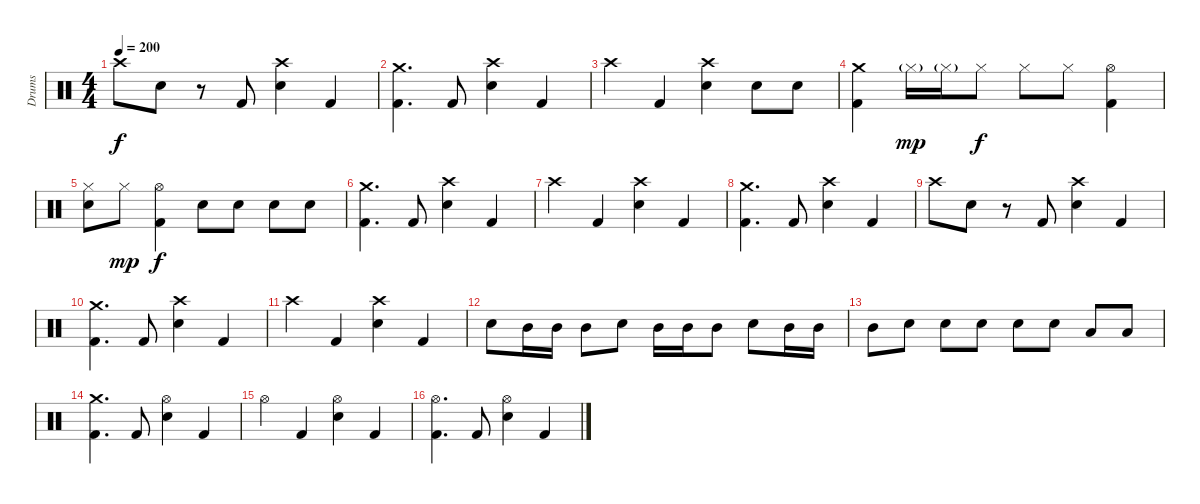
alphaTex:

\track ("Drums" "Drums") {instrument percussion}
\staff {score}
\articulation defaults
\ts (4 4)
\tempo 200
\clef neutral
\ks c "Crash high (hit)".8{dy f} "Electric Snare (hit)".8
r.8 "Kick (hit) 2".8 ("Crash high (hit)" "Electric Snare (hit)").4 "Kick (hit) 2".4 |
("Crash medium (hit)" "Kick (hit) 2").4{d} "Kick (hit) 2".8 ("Crash high (hit)" "Electric Snare (hit)").4 "Kick (hit) 2".4 |
"Crash high (hit)".4 "Kick (hit) 2".4 ("Crash high (hit)" "Electric Snare (hit)").4 "Electric Snare (hit)".8 "Electric Snare (hit)".8 |
("Crash medium (hit)" "Kick (hit) 2").4 "Hi-Hat (closed)"{g}.16{dy mp} "Hi-Hat (closed)"{g}.16 "Hi-Hat (closed)".8{dy f} "Hi-Hat (closed)".8 "Hi-Hat (closed)".8 ("Kick (hit) 2" "Hi-Hat (open)").4 |
("Hi-Hat (closed)" "Electric Snare (hit)").8 "Hi-Hat (closed)".8{dy mp} ("Kick (hit) 2" "Hi-Hat (open)").4{dy f} "Electric Snare (hit)".8 "Electric Snare (hit)".8 "Electric Snare (hit)".8 "Electric Snare (hit)".8 |
("Crash medium (hit)" "Kick (hit) 2").4{d} "Kick (hit) 2".8 ("Crash high (hit)" "Electric Snare (hit)").4 "Kick (hit) 2".4 |
"Crash high (hit)".4 "Kick (hit) 2".4 ("Crash high (hit)" "Electric Snare (hit)").4 "Kick (hit) 2".4 |
("Crash medium (hit)" "Kick (hit) 2").4{d} "Kick (hit) 2".8 ("Crash high (hit)" "Electric Snare (hit)").4 "Kick (hit) 2".4 |
"Crash high (hit)".8 "Electric Snare (hit)".8 r.8 "Kick (hit) 2".8 ("Crash high (hit)" "Electric Snare (hit)").4 "Kick (hit) 2".4 |
("Crash medium (hit)" "Kick (hit) 2").4{d} "Kick (hit) 2".8 ("Crash high (hit)" "Electric Snare (hit)").4 "Kick (hit) 2".4 |
"Crash high (hit)".4 "Kick (hit) 2".4 ("Crash high (hit)" "Electric Snare (hit)").4 "Kick (hit) 2".4 |
"Electric Snare (hit)".8 "Mid Tom (hit)".16 "Mid Tom (hit)".16 "Mid Tom (hit)".8 "Electric Snare (hit)".8 "Mid Tom (hit)".16 "Mid Tom (hit)".16 "Mid Tom (hit)".8 "Electric Snare (hit)".8 "Mid Tom (hit)".16 "Mid Tom (hit)".16 |
"Mid Tom (hit)".8 "Electric Snare (hit)".8 "Electric Snare (hit)".8 "Electric Snare (hit)".8 "Electric Snare (hit)".8 "Electric Snare (hit)".8 "Low Tom (hit)".8 "Low Tom (hit)".8 |
("Crash medium (hit)" "Kick (hit) 2").4{d} "Kick (hit) 2".8 ("Hi-Hat (open)" "Electric Snare (hit)").4 "Kick (hit) 2".4 |
"Hi-Hat (open)".4 "Kick (hit) 2".4 ("Hi-Hat (open)" "Electric Snare (hit)").4 "Kick (hit) 2".4 |
("Hi-Hat (open)" "Kick (hit) 2").4{d} "Kick (hit) 2".8 ("Hi-Hat (open)" "Electric Snare (hit)").4 "Kick (hit) 2".4
